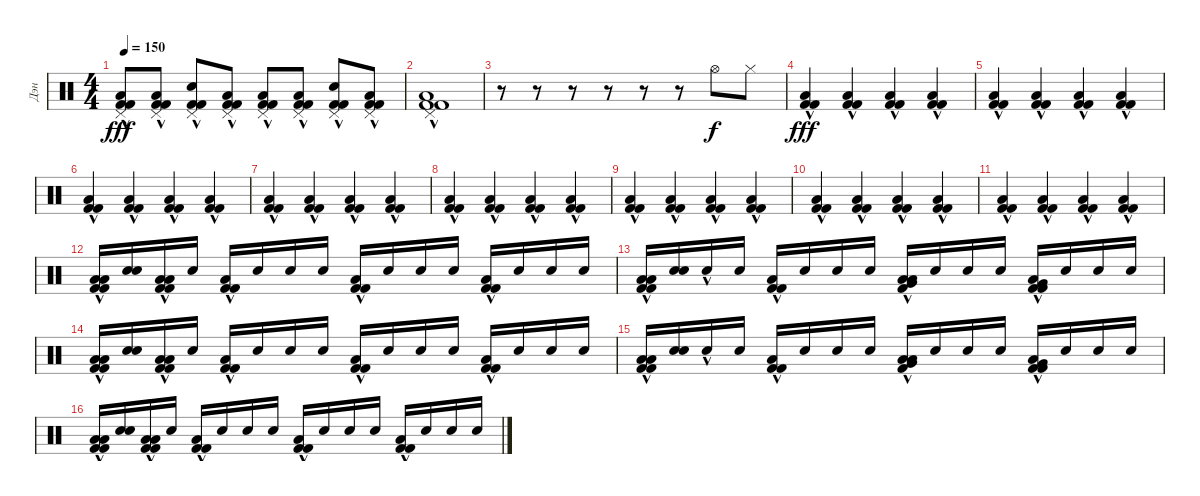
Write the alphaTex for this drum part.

\track ("Дэн" "Дэн") {instrument percussion}
\staff {score}
\articulation defaults
\ts (4 4)
\tempo 150
\clef neutral
\ks c
("Low Floor Tom (hit)" "Kick (hit) 2"{hac} "Kick (hit) 2"{hac} "Pedal Hi-Hat (hit)").8{dy fff} ("Low Floor Tom (hit)" "Kick (hit) 2"{hac} "Kick (hit) 2"{hac} "Pedal Hi-Hat (hit)").8 ("Electric Snare (hit)" "Kick (hit) 2"{hac} "Kick (hit) 2"{hac} "Pedal Hi-Hat (hit)").8 ("Low Floor Tom (hit)" "Kick (hit) 2"{hac} "Kick (hit) 2"{hac} "Pedal Hi-Hat (hit)").8 ("Low Floor Tom (hit)" "Kick (hit) 2"{hac} "Kick (hit) 2"{hac} "Pedal Hi-Hat (hit)").8 ("Low Floor Tom (hit)" "Kick (hit) 2"{hac} "Kick (hit) 2"{hac} "Pedal Hi-Hat (hit)").8 ("Electric Snare (hit)" "Kick (hit) 2"{hac} "Kick (hit) 2"{hac} "Pedal Hi-Hat (hit)").8 ("Low Floor Tom (hit)" "Kick (hit) 2"{hac} "Kick (hit) 2"{hac} "Pedal Hi-Hat (hit)").8 |
("Low Floor Tom (hit)" "Kick (hit) 2"{hac} "Kick (hit) 2"{hac} "Pedal Hi-Hat (hit)").1 |
r.8 r.8 r.8 r.8 r.8 r.8 "Hi-Hat (open)".8{dy f} "Hi-Hat (closed)".8 |
("Low Floor Tom (hit)" "Kick (hit) 2"{hac} "Kick (hit) 2"{hac}).4{dy fff} ("Low Floor Tom (hit)" "Kick (hit) 2"{hac} "Kick (hit) 2"{hac}).4 ("Low Floor Tom (hit)" "Kick (hit) 2"{hac} "Kick (hit) 2"{hac}).4 ("Low Floor Tom (hit)" "Kick (hit) 2"{hac} "Kick (hit) 2"{hac}).4 |
("Low Floor Tom (hit)" "Kick (hit) 2"{hac} "Kick (hit) 2"{hac}).4 ("Low Floor Tom (hit)" "Kick (hit) 2"{hac} "Kick (hit) 2"{hac}).4 ("Low Floor Tom (hit)" "Kick (hit) 2"{hac} "Kick (hit) 2"{hac}).4 ("Low Floor Tom (hit)" "Kick (hit) 2"{hac} "Kick (hit) 2"{hac}).4 |
("Low Floor Tom (hit)" "Kick (hit) 2"{hac} "Kick (hit) 2"{hac}).4 ("Low Floor Tom (hit)" "Kick (hit) 2"{hac} "Kick (hit) 2"{hac}).4 ("Low Floor Tom (hit)" "Kick (hit) 2"{hac} "Kick (hit) 2"{hac}).4 ("Low Floor Tom (hit)" "Kick (hit) 2"{hac} "Kick (hit) 2"{hac}).4 |
("Low Floor Tom (hit)" "Kick (hit) 2"{hac} "Kick (hit) 2"{hac}).4 ("Low Floor Tom (hit)" "Kick (hit) 2"{hac} "Kick (hit) 2"{hac}).4 ("Low Floor Tom (hit)" "Kick (hit) 2"{hac} "Kick (hit) 2"{hac}).4 ("Low Floor Tom (hit)" "Kick (hit) 2"{hac} "Kick (hit) 2"{hac}).4 |
("Low Floor Tom (hit)" "Kick (hit) 2"{hac} "Kick (hit) 2"{hac}).4 ("Low Floor Tom (hit)" "Kick (hit) 2"{hac} "Kick (hit) 2"{hac}).4 ("Low Floor Tom (hit)" "Kick (hit) 2"{hac} "Kick (hit) 2"{hac}).4 ("Low Floor Tom (hit)" "Kick (hit) 2"{hac} "Kick (hit) 2"{hac}).4 |
("Low Floor Tom (hit)" "Kick (hit) 2"{hac} "Kick (hit) 2"{hac}).4 ("Low Floor Tom (hit)" "Kick (hit) 2"{hac} "Kick (hit) 2"{hac}).4 ("Low Floor Tom (hit)" "Kick (hit) 2"{hac} "Kick (hit) 2"{hac}).4 ("Low Floor Tom (hit)" "Kick (hit) 2"{hac} "Kick (hit) 2"{hac}).4 |
("Low Floor Tom (hit)" "Kick (hit) 2"{hac} "Kick (hit) 2"{hac}).4 ("Low Floor Tom (hit)" "Kick (hit) 2"{hac} "Kick (hit) 2"{hac}).4 ("Low Floor Tom (hit)" "Kick (hit) 2"{hac} "Kick (hit) 2"{hac}).4 ("Low Floor Tom (hit)" "Kick (hit) 2"{hac} "Kick (hit) 2"{hac}).4 |
("Low Floor Tom (hit)" "Kick (hit) 2"{hac} "Kick (hit) 2"{hac}).4 ("Low Floor Tom (hit)" "Kick (hit) 2"{hac} "Kick (hit) 2"{hac}).4 ("Low Floor Tom (hit)" "Kick (hit) 2"{hac} "Kick (hit) 2"{hac}).4 ("Low Floor Tom (hit)" "Kick (hit) 2"{hac} "Kick (hit) 2"{hac}).4 |
("Low Floor Tom (hit)"{hac} "Low Floor Tom (hit)" "Kick (hit) 2"{hac} "Kick (hit) 2"{hac}).16 ("Snare (hit)" "Snare (hit)").16 ("Low Floor Tom (hit)"{hac} "Low Floor Tom (hit)" "Kick (hit) 2"{hac} "Kick (hit) 2"{hac}).16 "Snare (hit)".16 ("Low Floor Tom (hit)" "Kick (hit) 2"{hac} "Kick (hit) 2"{hac}).16 "Snare (hit)".16 "Snare (hit)".16 "Snare (hit)".16 ("Kick (hit) 2"{hac} "Kick (hit) 2"{hac} "Low Floor Tom (hit)").16 "Snare (hit)".16 "Snare (hit)".16 "Snare (hit)".16 ("Low Floor Tom (hit)" "Kick (hit) 2"{hac} "Kick (hit) 2"{hac}).16 "Snare (hit)".16 "Snare (hit)".16 "Snare (hit)".16 |
("Low Floor Tom (hit)"{hac} "Low Floor Tom (hit)" "Kick (hit) 2"{hac} "Kick (hit) 2"{hac}).16 ("Snare (hit)" "Snare (hit)").16 "Snare (hit)"{hac}.16 "Snare (hit)".16 ("Low Floor Tom (hit)" "Kick (hit) 2"{hac} "Kick (hit) 2"{hac}).16 "Snare (hit)".16 "Snare (hit)".16 "Snare (hit)".16 ("Low Floor Tom (hit)"{hac} "Very Low Tom (hit)" "Kick (hit) 2"{hac} "Low Floor Tom (hit)").16 "Snare (hit)".16 "Snare (hit)".16 "Snare (hit)".16 ("Very Low Tom (hit)"{hac} "Low Floor Tom (hit)"{hac} "Kick (hit) 2"{hac} "Kick (hit) 2"{hac}).16 "Snare (hit)".16 "Snare (hit)".16 "Snare (hit)".16 |
("Low Floor Tom (hit)"{hac} "Low Floor Tom (hit)" "Kick (hit) 2"{hac} "Kick (hit) 2"{hac}).16 ("Snare (hit)" "Snare (hit)").16 ("Low Floor Tom (hit)"{hac} "Low Floor Tom (hit)" "Kick (hit) 2"{hac} "Kick (hit) 2"{hac}).16 "Snare (hit)".16 ("Low Floor Tom (hit)" "Kick (hit) 2"{hac} "Kick (hit) 2"{hac}).16 "Snare (hit)".16 "Snare (hit)".16 "Snare (hit)".16 ("Kick (hit) 2"{hac} "Kick (hit) 2"{hac} "Low Floor Tom (hit)").16 "Snare (hit)".16 "Snare (hit)".16 "Snare (hit)".16 ("Low Floor Tom (hit)" "Kick (hit) 2"{hac} "Kick (hit) 2"{hac}).16 "Snare (hit)".16 "Snare (hit)".16 "Snare (hit)".16 |
("Low Floor Tom (hit)"{hac} "Low Floor Tom (hit)" "Kick (hit) 2"{hac} "Kick (hit) 2"{hac}).16 ("Snare (hit)" "Snare (hit)").16 "Snare (hit)"{hac}.16 "Snare (hit)".16 ("Low Floor Tom (hit)" "Kick (hit) 2"{hac} "Kick (hit) 2"{hac}).16 "Snare (hit)".16 "Snare (hit)".16 "Snare (hit)".16 ("Low Floor Tom (hit)"{hac} "Very Low Tom (hit)" "Kick (hit) 2"{hac} "Low Floor Tom (hit)").16 "Snare (hit)".16 "Snare (hit)".16 "Snare (hit)".16 ("Very Low Tom (hit)"{hac} "Low Floor Tom (hit)"{hac} "Kick (hit) 2"{hac} "Kick (hit) 2"{hac}).16 "Snare (hit)".16 "Snare (hit)".16 "Snare (hit)".16 |
("Low Floor Tom (hit)"{hac} "Low Floor Tom (hit)" "Kick (hit) 2"{hac} "Kick (hit) 2"{hac}).16 ("Snare (hit)" "Snare (hit)").16 ("Low Floor Tom (hit)"{hac} "Low Floor Tom (hit)" "Kick (hit) 2"{hac} "Kick (hit) 2"{hac}).16 "Snare (hit)".16 ("Low Floor Tom (hit)" "Kick (hit) 2"{hac} "Kick (hit) 2"{hac}).16 "Snare (hit)".16 "Snare (hit)".16 "Snare (hit)".16 ("Kick (hit) 2"{hac} "Kick (hit) 2"{hac} "Low Floor Tom (hit)").16 "Snare (hit)".16 "Snare (hit)".16 "Snare (hit)".16 ("Low Floor Tom (hit)" "Kick (hit) 2"{hac} "Kick (hit) 2"{hac}).16 "Snare (hit)".16 "Snare (hit)".16 "Snare (hit)".16
